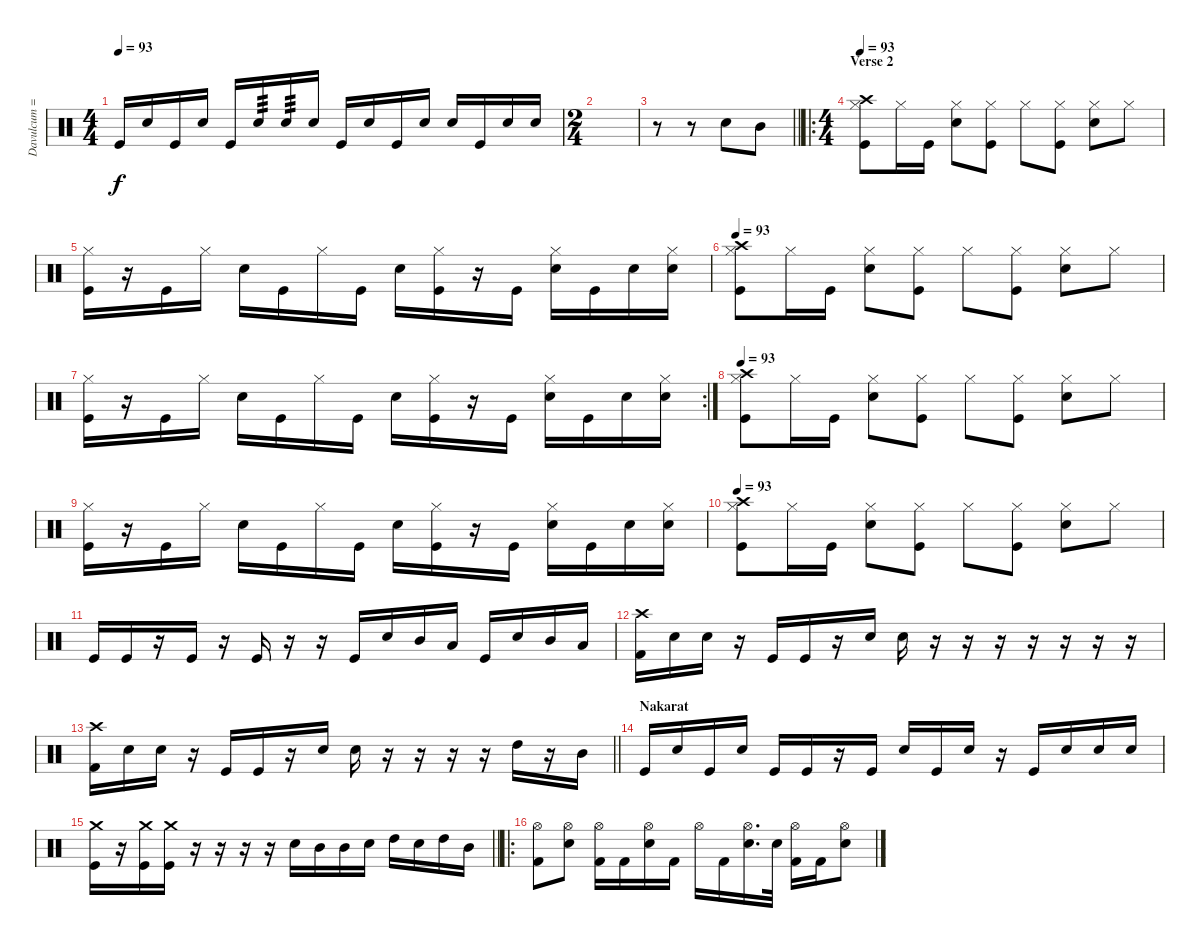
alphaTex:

\track ("Davulcum =)" "Davulcum =") {instrument percussion}
\staff {score}
\articulation defaults
\ts (4 4)
\tempo 93
\clef neutral
\ks c "Kick (hit)".16{dy f} "Snare (hit) 2".16 "Kick (hit)".16 "Snare (hit) 2".16 "Kick (hit)".16 "Snare (hit) 2".16{tp 3} "Snare (hit) 2".16{tp 3} "Snare (hit) 2".16 "Kick (hit)".16 "Snare (hit) 2".16 "Kick (hit)".16 "Snare (hit) 2".16 "Snare (hit) 2".16 "Kick (hit)".16 "Snare (hit) 2".16 "Snare (hit) 2".16
|
\ts (2 4)
|
\barLineRight lightlight
r.8 r.8 "Electric Snare (hit)".8 "Mid Tom (hit)".8 |
\ro
\ts (4 4)
\section ("" "Verse 2")
\tempo 93
("Crash high (hit)" "Hi-Hat (closed)" "Kick (hit)").8 "Hi-Hat (closed)".16 "Kick (hit)".16 ("Hi-Hat (closed)" "Snare (hit) 2").8 ("Hi-Hat (closed)" "Kick (hit)").8 "Hi-Hat (closed)".8 ("Hi-Hat (closed)" "Kick (hit)").8 ("Hi-Hat (closed)" "Snare (hit) 2").8 "Hi-Hat (closed)".8 |
("Hi-Hat (closed)" "Kick (hit)").16 r.16 "Kick (hit)".16 "Hi-Hat (closed)".16 "Snare (hit) 2".16 "Kick (hit)".16 "Hi-Hat (closed)".16 "Kick (hit)".16 "Snare (hit) 2".16 ("Hi-Hat (closed)" "Kick (hit)").16 r.16 "Kick (hit)".16 ("Hi-Hat (closed)" "Snare (hit) 2").16 "Kick (hit)".16 "Snare (hit) 2".16 ("Hi-Hat (closed)" "Snare (hit) 2").16 |
\tempo 93
("Crash high (hit)" "Hi-Hat (closed)" "Kick (hit)").8 "Hi-Hat (closed)".16 "Kick (hit)".16 ("Hi-Hat (closed)" "Snare (hit) 2").8 ("Hi-Hat (closed)" "Kick (hit)").8 "Hi-Hat (closed)".8 ("Hi-Hat (closed)" "Kick (hit)").8 ("Hi-Hat (closed)" "Snare (hit) 2").8 "Hi-Hat (closed)".8 |
\rc 2
("Hi-Hat (closed)" "Kick (hit)").16 r.16 "Kick (hit)".16 "Hi-Hat (closed)".16 "Snare (hit) 2".16 "Kick (hit)".16 "Hi-Hat (closed)".16 "Kick (hit)".16 "Snare (hit) 2".16 ("Hi-Hat (closed)" "Kick (hit)").16 r.16 "Kick (hit)".16 ("Hi-Hat (closed)" "Snare (hit) 2").16 "Kick (hit)".16 "Snare (hit) 2".16 ("Hi-Hat (closed)" "Snare (hit) 2").16 |
\tempo 93
("Crash high (hit)" "Hi-Hat (closed)" "Kick (hit)").8 "Hi-Hat (closed)".16 "Kick (hit)".16 ("Hi-Hat (closed)" "Snare (hit) 2").8 ("Hi-Hat (closed)" "Kick (hit)").8 "Hi-Hat (closed)".8 ("Hi-Hat (closed)" "Kick (hit)").8 ("Hi-Hat (closed)" "Snare (hit) 2").8 "Hi-Hat (closed)".8 |
("Hi-Hat (closed)" "Kick (hit)").16 r.16 "Kick (hit)".16 "Hi-Hat (closed)".16 "Snare (hit) 2".16 "Kick (hit)".16 "Hi-Hat (closed)".16 "Kick (hit)".16 "Snare (hit) 2".16 ("Hi-Hat (closed)" "Kick (hit)").16 r.16 "Kick (hit)".16 ("Hi-Hat (closed)" "Snare (hit) 2").16 "Kick (hit)".16 "Snare (hit) 2".16 ("Hi-Hat (closed)" "Snare (hit) 2").16 |
\tempo 93
("Crash high (hit)" "Hi-Hat (closed)" "Kick (hit)").8 "Hi-Hat (closed)".16 "Kick (hit)".16 ("Hi-Hat (closed)" "Snare (hit) 2").8 ("Hi-Hat (closed)" "Kick (hit)").8 "Hi-Hat (closed)".8 ("Hi-Hat (closed)" "Kick (hit)").8 ("Hi-Hat (closed)" "Snare (hit) 2").8 "Hi-Hat (closed)".8 |
"Kick (hit)".16 "Kick (hit)".16 r.16 "Kick (hit)".16 r.16 "Kick (hit)".16 r.16 r.16 "Kick (hit)".16 "Snare (hit) 2".16 "Mid Tom (hit)".16 "Low Tom (hit)".16 "Kick (hit)".16 "Snare (hit) 2".16 "Mid Tom (hit)".16 "Low Tom (hit)".16 |
("Crash high (hit)" "Kick (hit) 2").16 "Snare (hit) 2".16 "Snare (hit) 2".16 r.16 "Kick (hit)".16 "Kick (hit)".16 r.16 "Snare (hit) 2".16 "Snare (hit) 2".16 r.16 r.16 r.16 r.16 r.16 r.16 r.16 |
\barLineRight lightlight
("Crash high (hit)" "Kick (hit) 2").16 "Snare (hit) 2".16 "Snare (hit) 2".16 r.16 "Kick (hit)".16 "Kick (hit)".16 r.16 "Snare (hit) 2".16 "Snare (hit) 2".16 r.16 r.16 r.16 r.16 "High Tom (hit)".16 r.16 "Mid Tom (hit)".16 |
\section ("" "Nakarat")
"Kick (hit)".16 "Snare (hit) 2".16 "Kick (hit)".16 "Snare (hit) 2".16 "Kick (hit)".16 "Kick (hit)".16 r.16 "Kick (hit)".16 "Snare (hit) 2".16 "Kick (hit)".16 "Snare (hit) 2".16 r.16 "Kick (hit)".16 "Snare (hit) 2".16 "Snare (hit) 2".16 "Snare (hit) 2".16 |
\barLineRight lightlight
("Crash medium (hit)" "Kick (hit)").16 r.16 ("Crash medium (hit)" "Kick (hit)").16 ("Crash medium (hit)" "Kick (hit)").16 r.16 r.16 r.16 r.16 "Snare (hit) 2".16 "Mid Tom (hit)".16 "Mid Tom (hit)".16 "Snare (hit) 2".16 "High Tom (hit)".16 "Snare (hit) 2".16 "High Tom (hit)".16 "Mid Tom (hit)".16 |
\ro
\section ("" "")
("Kick (hit) 2" "Hi-Hat (open)").8 ("Electric Snare (hit)" "Hi-Hat (open)").8 ("Kick (hit) 2" "Hi-Hat (open)").16 "Kick (hit) 2".16 ("Electric Snare (hit)" "Hi-Hat (open)").16 "Kick (hit) 2".16 "Hi-Hat (open)".16 "Kick (hit) 2".16 ("Electric Snare (hit)" "Hi-Hat (open)").16{d} "Electric Snare (hit)".32 ("Kick (hit) 2" "Hi-Hat (open)").16 "Kick (hit) 2".16 ("Electric Snare (hit)" "Hi-Hat (open)").8
